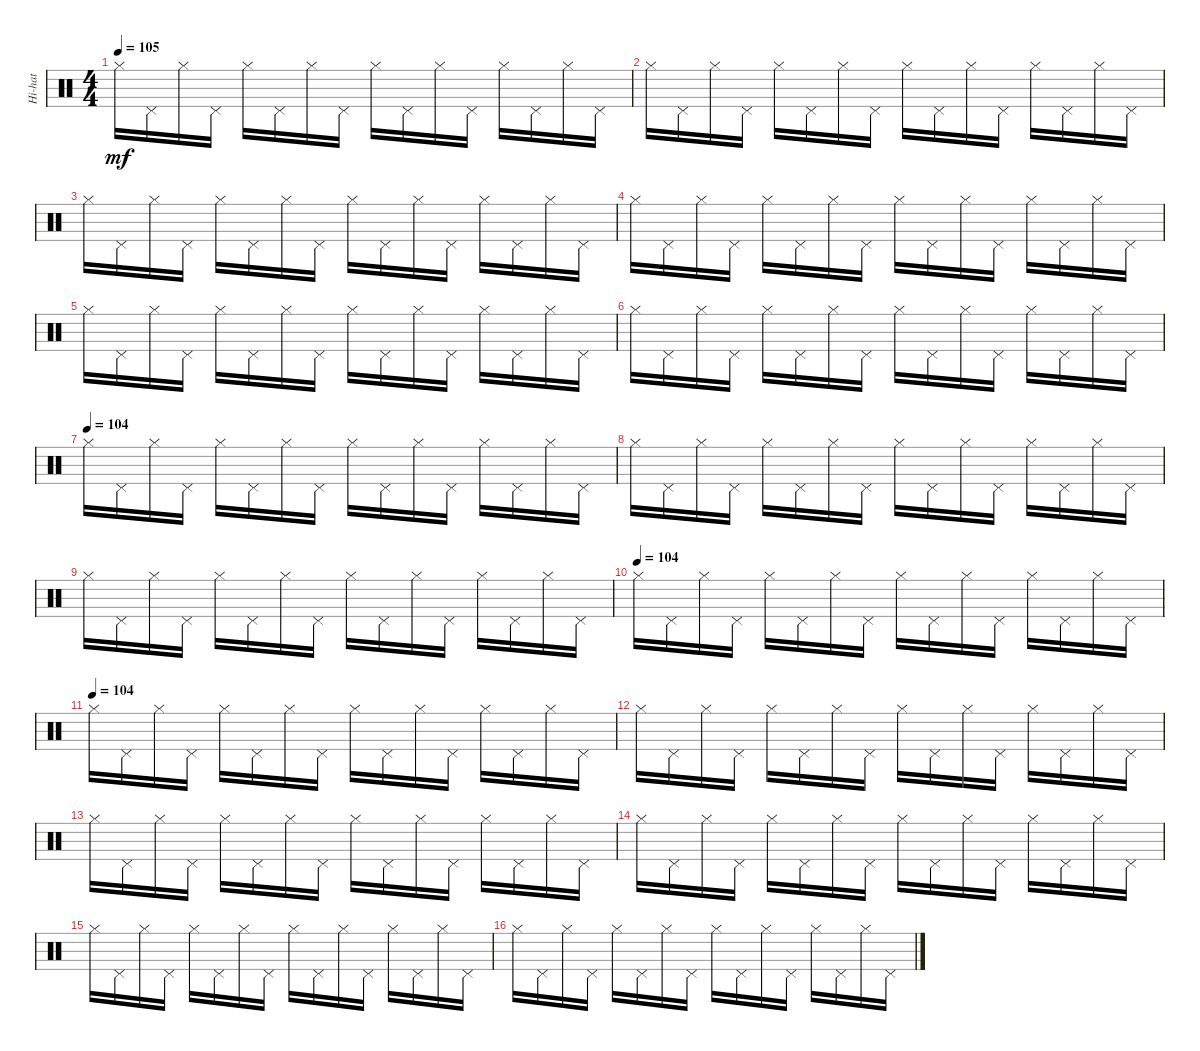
\track ("Hi-hat" "Hi-hat") {instrument percussion}
\staff {score}
\articulation defaults
\ts (4 4)
\tempo 105
\clef neutral
\ks c "Hi-Hat (closed)".16{dy mf} "Pedal Hi-Hat (hit)".16 "Hi-Hat (closed)".16 "Pedal Hi-Hat (hit)".16 "Hi-Hat (closed)".16 "Pedal Hi-Hat (hit)".16 "Hi-Hat (closed)".16 "Pedal Hi-Hat (hit)".16 "Hi-Hat (closed)".16 "Pedal Hi-Hat (hit)".16 "Hi-Hat (closed)".16 "Pedal Hi-Hat (hit)".16 "Hi-Hat (closed)".16 "Pedal Hi-Hat (hit)".16 "Hi-Hat (closed)".16 "Pedal Hi-Hat (hit)".16
|
"Hi-Hat (closed)".16 "Pedal Hi-Hat (hit)".16 "Hi-Hat (closed)".16 "Pedal Hi-Hat (hit)".16 "Hi-Hat (closed)".16 "Pedal Hi-Hat (hit)".16 "Hi-Hat (closed)".16 "Pedal Hi-Hat (hit)".16 "Hi-Hat (closed)".16 "Pedal Hi-Hat (hit)".16 "Hi-Hat (closed)".16 "Pedal Hi-Hat (hit)".16 "Hi-Hat (closed)".16 "Pedal Hi-Hat (hit)".16 "Hi-Hat (closed)".16 "Pedal Hi-Hat (hit)".16 |
"Hi-Hat (closed)".16 "Pedal Hi-Hat (hit)".16 "Hi-Hat (closed)".16 "Pedal Hi-Hat (hit)".16 "Hi-Hat (closed)".16 "Pedal Hi-Hat (hit)".16 "Hi-Hat (closed)".16 "Pedal Hi-Hat (hit)".16 "Hi-Hat (closed)".16 "Pedal Hi-Hat (hit)".16 "Hi-Hat (closed)".16 "Pedal Hi-Hat (hit)".16 "Hi-Hat (closed)".16 "Pedal Hi-Hat (hit)".16 "Hi-Hat (closed)".16 "Pedal Hi-Hat (hit)".16 |
"Hi-Hat (closed)".16 "Pedal Hi-Hat (hit)".16 "Hi-Hat (closed)".16 "Pedal Hi-Hat (hit)".16 "Hi-Hat (closed)".16 "Pedal Hi-Hat (hit)".16 "Hi-Hat (closed)".16 "Pedal Hi-Hat (hit)".16 "Hi-Hat (closed)".16 "Pedal Hi-Hat (hit)".16 "Hi-Hat (closed)".16 "Pedal Hi-Hat (hit)".16 "Hi-Hat (closed)".16 "Pedal Hi-Hat (hit)".16 "Hi-Hat (closed)".16 "Pedal Hi-Hat (hit)".16 |
"Hi-Hat (closed)".16 "Pedal Hi-Hat (hit)".16 "Hi-Hat (closed)".16 "Pedal Hi-Hat (hit)".16 "Hi-Hat (closed)".16 "Pedal Hi-Hat (hit)".16 "Hi-Hat (closed)".16 "Pedal Hi-Hat (hit)".16 "Hi-Hat (closed)".16 "Pedal Hi-Hat (hit)".16 "Hi-Hat (closed)".16 "Pedal Hi-Hat (hit)".16 "Hi-Hat (closed)".16 "Pedal Hi-Hat (hit)".16 "Hi-Hat (closed)".16 "Pedal Hi-Hat (hit)".16 |
"Hi-Hat (closed)".16 "Pedal Hi-Hat (hit)".16 "Hi-Hat (closed)".16 "Pedal Hi-Hat (hit)".16 "Hi-Hat (closed)".16 "Pedal Hi-Hat (hit)".16 "Hi-Hat (closed)".16 "Pedal Hi-Hat (hit)".16 "Hi-Hat (closed)".16 "Pedal Hi-Hat (hit)".16 "Hi-Hat (closed)".16 "Pedal Hi-Hat (hit)".16 "Hi-Hat (closed)".16 "Pedal Hi-Hat (hit)".16 "Hi-Hat (closed)".16 "Pedal Hi-Hat (hit)".16 |
\tempo (104)
"Hi-Hat (closed)".16 "Pedal Hi-Hat (hit)".16 "Hi-Hat (closed)".16 "Pedal Hi-Hat (hit)".16 "Hi-Hat (closed)".16 "Pedal Hi-Hat (hit)".16 "Hi-Hat (closed)".16 "Pedal Hi-Hat (hit)".16 "Hi-Hat (closed)".16 "Pedal Hi-Hat (hit)".16 "Hi-Hat (closed)".16 "Pedal Hi-Hat (hit)".16 "Hi-Hat (closed)".16 "Pedal Hi-Hat (hit)".16 "Hi-Hat (closed)".16 "Pedal Hi-Hat (hit)".16 |
"Hi-Hat (closed)".16 "Pedal Hi-Hat (hit)".16 "Hi-Hat (closed)".16 "Pedal Hi-Hat (hit)".16 "Hi-Hat (closed)".16 "Pedal Hi-Hat (hit)".16 "Hi-Hat (closed)".16 "Pedal Hi-Hat (hit)".16 "Hi-Hat (closed)".16 "Pedal Hi-Hat (hit)".16 "Hi-Hat (closed)".16 "Pedal Hi-Hat (hit)".16 "Hi-Hat (closed)".16 "Pedal Hi-Hat (hit)".16 "Hi-Hat (closed)".16 "Pedal Hi-Hat (hit)".16 |
"Hi-Hat (closed)".16 "Pedal Hi-Hat (hit)".16 "Hi-Hat (closed)".16 "Pedal Hi-Hat (hit)".16 "Hi-Hat (closed)".16 "Pedal Hi-Hat (hit)".16 "Hi-Hat (closed)".16 "Pedal Hi-Hat (hit)".16 "Hi-Hat (closed)".16 "Pedal Hi-Hat (hit)".16 "Hi-Hat (closed)".16 "Pedal Hi-Hat (hit)".16 "Hi-Hat (closed)".16 "Pedal Hi-Hat (hit)".16 "Hi-Hat (closed)".16 "Pedal Hi-Hat (hit)".16 |
\tempo (104)
"Hi-Hat (closed)".16 "Pedal Hi-Hat (hit)".16 "Hi-Hat (closed)".16 "Pedal Hi-Hat (hit)".16 "Hi-Hat (closed)".16 "Pedal Hi-Hat (hit)".16 "Hi-Hat (closed)".16 "Pedal Hi-Hat (hit)".16 "Hi-Hat (closed)".16 "Pedal Hi-Hat (hit)".16 "Hi-Hat (closed)".16 "Pedal Hi-Hat (hit)".16 "Hi-Hat (closed)".16 "Pedal Hi-Hat (hit)".16 "Hi-Hat (closed)".16 "Pedal Hi-Hat (hit)".16 |
\tempo (104)
"Hi-Hat (closed)".16 "Pedal Hi-Hat (hit)".16 "Hi-Hat (closed)".16 "Pedal Hi-Hat (hit)".16 "Hi-Hat (closed)".16 "Pedal Hi-Hat (hit)".16 "Hi-Hat (closed)".16 "Pedal Hi-Hat (hit)".16 "Hi-Hat (closed)".16 "Pedal Hi-Hat (hit)".16 "Hi-Hat (closed)".16 "Pedal Hi-Hat (hit)".16 "Hi-Hat (closed)".16 "Pedal Hi-Hat (hit)".16 "Hi-Hat (closed)".16 "Pedal Hi-Hat (hit)".16 |
"Hi-Hat (closed)".16 "Pedal Hi-Hat (hit)".16 "Hi-Hat (closed)".16 "Pedal Hi-Hat (hit)".16 "Hi-Hat (closed)".16 "Pedal Hi-Hat (hit)".16 "Hi-Hat (closed)".16 "Pedal Hi-Hat (hit)".16 "Hi-Hat (closed)".16 "Pedal Hi-Hat (hit)".16 "Hi-Hat (closed)".16 "Pedal Hi-Hat (hit)".16 "Hi-Hat (closed)".16 "Pedal Hi-Hat (hit)".16 "Hi-Hat (closed)".16 "Pedal Hi-Hat (hit)".16 |
"Hi-Hat (closed)".16 "Pedal Hi-Hat (hit)".16 "Hi-Hat (closed)".16 "Pedal Hi-Hat (hit)".16 "Hi-Hat (closed)".16 "Pedal Hi-Hat (hit)".16 "Hi-Hat (closed)".16 "Pedal Hi-Hat (hit)".16 "Hi-Hat (closed)".16 "Pedal Hi-Hat (hit)".16 "Hi-Hat (closed)".16 "Pedal Hi-Hat (hit)".16 "Hi-Hat (closed)".16 "Pedal Hi-Hat (hit)".16 "Hi-Hat (closed)".16 "Pedal Hi-Hat (hit)".16 |
"Hi-Hat (closed)".16 "Pedal Hi-Hat (hit)".16 "Hi-Hat (closed)".16 "Pedal Hi-Hat (hit)".16 "Hi-Hat (closed)".16 "Pedal Hi-Hat (hit)".16 "Hi-Hat (closed)".16 "Pedal Hi-Hat (hit)".16 "Hi-Hat (closed)".16 "Pedal Hi-Hat (hit)".16 "Hi-Hat (closed)".16 "Pedal Hi-Hat (hit)".16 "Hi-Hat (closed)".16 "Pedal Hi-Hat (hit)".16 "Hi-Hat (closed)".16 "Pedal Hi-Hat (hit)".16 |
"Hi-Hat (closed)".16 "Pedal Hi-Hat (hit)".16 "Hi-Hat (closed)".16 "Pedal Hi-Hat (hit)".16 "Hi-Hat (closed)".16 "Pedal Hi-Hat (hit)".16 "Hi-Hat (closed)".16 "Pedal Hi-Hat (hit)".16 "Hi-Hat (closed)".16 "Pedal Hi-Hat (hit)".16 "Hi-Hat (closed)".16 "Pedal Hi-Hat (hit)".16 "Hi-Hat (closed)".16 "Pedal Hi-Hat (hit)".16 "Hi-Hat (closed)".16 "Pedal Hi-Hat (hit)".16 |
"Hi-Hat (closed)".16 "Pedal Hi-Hat (hit)".16 "Hi-Hat (closed)".16 "Pedal Hi-Hat (hit)".16 "Hi-Hat (closed)".16 "Pedal Hi-Hat (hit)".16 "Hi-Hat (closed)".16 "Pedal Hi-Hat (hit)".16 "Hi-Hat (closed)".16 "Pedal Hi-Hat (hit)".16 "Hi-Hat (closed)".16 "Pedal Hi-Hat (hit)".16 "Hi-Hat (closed)".16 "Pedal Hi-Hat (hit)".16 "Hi-Hat (closed)".16 "Pedal Hi-Hat (hit)".16
